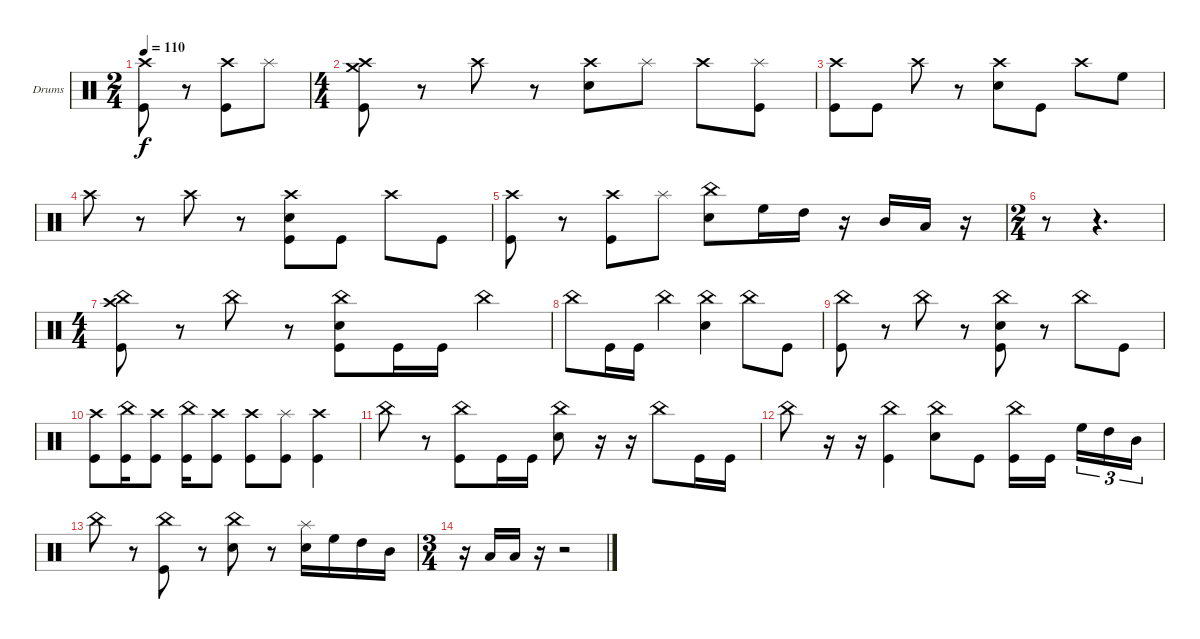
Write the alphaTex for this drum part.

\bracketExtendMode groupsimilarinstruments
\firstSystemTrackNameOrientation horizontal
\otherSystemsTrackNameOrientation horizontal
\track ("Drumkit" "Drums") {instrument percussion}
\staff {score}
\articulation defaults
\ts (2 4)
\beaming (8 2 2 2 2)
\tempo 110
\clef neutral
\ks c
("Crash high (hit)" "Kick (hit)").8{dy f} r.8 ("Crash high (hit)" "Kick (hit)").8 "Splash (hit)".8 |
\ts (4 4)
\beaming (8 2 2 2 2)
("Crash high (hit)" "Crash medium (hit)" "Kick (hit)").8 r.8 "Crash high (hit)".8 r.8 ("Snare (hit) 2" "Crash high (hit)").8 "Splash (hit)".8 "Crash high (hit)".8 ("Splash (hit)" "Kick (hit)").8 |
("Crash high (hit)" "Kick (hit)").8 "Kick (hit)".8 "Crash high (hit)".8 r.8 ("Crash high (hit)" "Snare (hit) 2").8 "Kick (hit)".8 "Crash high (hit)".8 "High Floor Tom (hit)".8 |
"Crash high (hit)".8 r.8 "Crash high (hit)".8 r.8 ("Crash high (hit)" "Snare (hit) 2" "Kick (hit)").8 "Kick (hit)".8 "Crash high (hit)".8 "Kick (hit)".8 |
("Crash high (hit)" "Kick (hit)").8 r.8 ("Crash high (hit)" "Kick (hit)").8 "Splash (hit)".8 ("Snare (hit) 2" "China (hit)").8 "High Floor Tom (hit)".16 "High Tom (hit)".16 r.16 "Mid Tom (hit)".16 "Low Tom (hit)".16 r.16 |
\ts (2 4)
\beaming (8 2 2 2 2)
r.8 r.4{d} |
\ts (4 4)
\beaming (8 2 2 2 2)
("Crash high (hit)" "China (hit)" "Kick (hit)").8 r.8 "China (hit)".8 r.8 ("Snare (hit) 2" "China (hit)" "Kick (hit)").8 "Kick (hit)".16 "Kick (hit)".16 "China (hit)".4 |
"China (hit)".8 "Kick (hit)".16 "Kick (hit)".16 "China (hit)".4 ("China (hit)" "Snare (hit) 2").4 "China (hit)".8 "Kick (hit)".8 |
("China (hit)" "Kick (hit)").8 r.8 "China (hit)".8 r.8 ("Snare (hit) 2" "China (hit)" "Kick (hit)").8 r.8 "China (hit)".8 "Kick (hit)".8 |
("Crash high (hit)" "Kick (hit)").8 ("China (hit)" "Kick (hit)").16 ("Crash high (hit)" "Kick (hit)").8 ("China (hit)" "Kick (hit)").16 ("Crash high (hit)" "Kick (hit)").8 ("Crash high (hit)" "Kick (hit)").8 ("Splash (hit)" "Kick (hit)").8 ("Kick (hit)" "Crash high (hit)").4 |
"China (hit)".8 r.8 ("China (hit)" "Kick (hit)").8 "Kick (hit)".16 "Kick (hit)".16 ("Snare (hit) 2" "China (hit)").8 r.16 r.16 "China (hit)".8 "Kick (hit)".16 "Kick (hit)".16 |
"China (hit)".8 r.16 r.16 ("China (hit)" "Kick (hit)").4 ("Snare (hit) 2" "China (hit)").8 "Kick (hit)".8 ("China (hit)" "Kick (hit)").16 "Kick (hit)".16 "High Floor Tom (hit)".16{tu (3 2)} "High Tom (hit)".16{tu (3 2)} "Mid Tom (hit)".16{tu (3 2)} |
"China (hit)".8 r.8 ("Kick (hit)" "China (hit)").8 r.8 ("Snare (hit) 2" "China (hit)").8 r.8 ("Snare (hit) 2" "Splash (hit)").16 "High Floor Tom (hit)".16 "High Tom (hit)".16 "Mid Tom (hit)".16 |
\ts (3 4)
\beaming (8 2 2 2 2)
r.16 "Low Tom (hit)".16 "Low Tom (hit)".16 r.16 r.2
